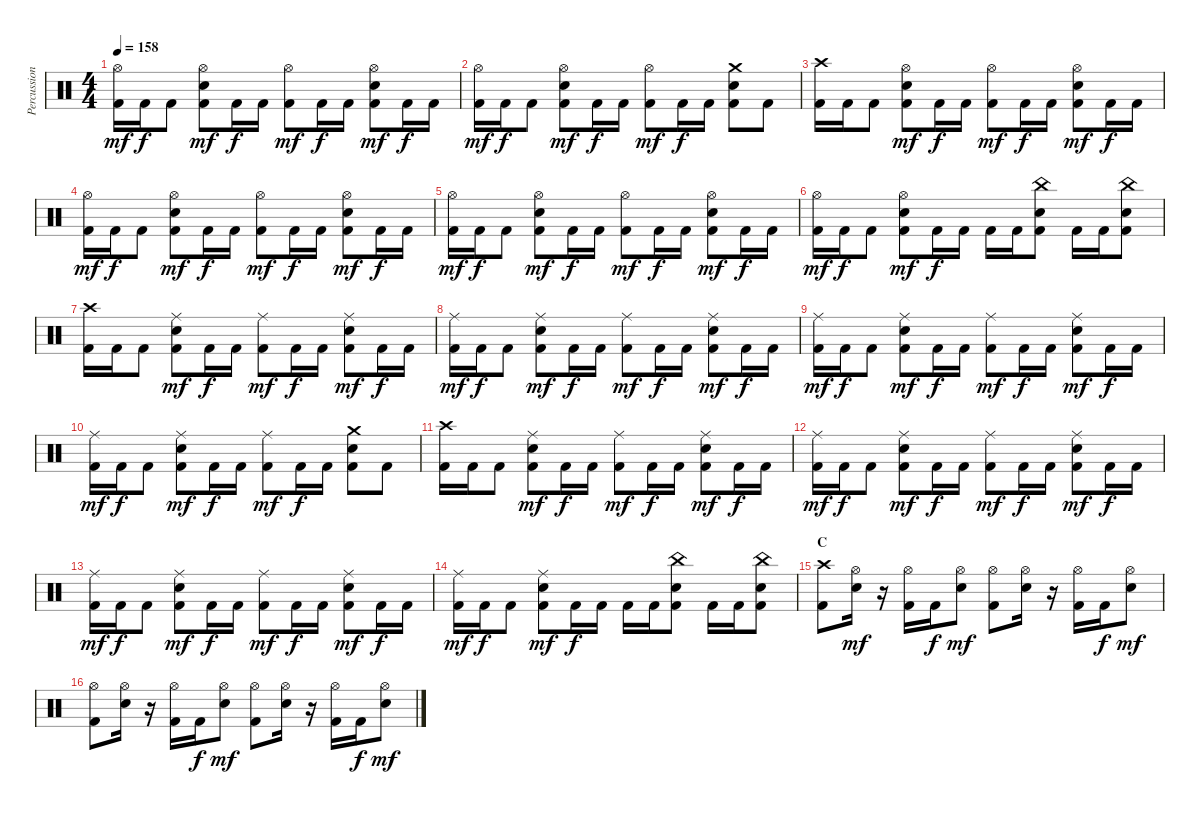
\track ("Percussion" "Percussion") {instrument percussion}
\staff {score}
\articulation defaults
\ts (4 4)
\tempo 158
\clef neutral
\ks c
("Hi-Hat (open)" "Kick (hit) 2").16{dy mf} "Kick (hit) 2".16{dy f} "Kick (hit) 2".8 ("Hi-Hat (open)" "Electric Snare (hit)" "Kick (hit) 2").8{dy mf} "Kick (hit) 2".16{dy f} "Kick (hit) 2".16 ("Hi-Hat (open)" "Kick (hit) 2").8{dy mf} "Kick (hit) 2".16{dy f} "Kick (hit) 2".16 ("Hi-Hat (open)" "Electric Snare (hit)" "Kick (hit) 2").8{dy mf} "Kick (hit) 2".16{dy f} "Kick (hit) 2".16 |
("Hi-Hat (open)" "Kick (hit) 2").16{dy mf} "Kick (hit) 2".16{dy f} "Kick (hit) 2".8 ("Hi-Hat (open)" "Electric Snare (hit)" "Kick (hit) 2").8{dy mf} "Kick (hit) 2".16{dy f} "Kick (hit) 2".16 ("Hi-Hat (open)" "Kick (hit) 2").8{dy mf} "Kick (hit) 2".16{dy f} "Kick (hit) 2".16 ("Crash medium (hit)" "Electric Snare (hit)" "Kick (hit) 2").8 "Kick (hit) 2".8 |
("Crash high (hit)" "Kick (hit) 2").16 "Kick (hit) 2".16 "Kick (hit) 2".8 ("Hi-Hat (open)" "Electric Snare (hit)" "Kick (hit) 2").8{dy mf} "Kick (hit) 2".16{dy f} "Kick (hit) 2".16 ("Hi-Hat (open)" "Kick (hit) 2").8{dy mf} "Kick (hit) 2".16{dy f} "Kick (hit) 2".16 ("Hi-Hat (open)" "Electric Snare (hit)" "Kick (hit) 2").8{dy mf} "Kick (hit) 2".16{dy f} "Kick (hit) 2".16 |
("Hi-Hat (open)" "Kick (hit) 2").16{dy mf} "Kick (hit) 2".16{dy f} "Kick (hit) 2".8 ("Hi-Hat (open)" "Electric Snare (hit)" "Kick (hit) 2").8{dy mf} "Kick (hit) 2".16{dy f} "Kick (hit) 2".16 ("Hi-Hat (open)" "Kick (hit) 2").8{dy mf} "Kick (hit) 2".16{dy f} "Kick (hit) 2".16 ("Hi-Hat (open)" "Electric Snare (hit)" "Kick (hit) 2").8{dy mf} "Kick (hit) 2".16{dy f} "Kick (hit) 2".16 |
("Hi-Hat (open)" "Kick (hit) 2").16{dy mf} "Kick (hit) 2".16{dy f} "Kick (hit) 2".8 ("Hi-Hat (open)" "Electric Snare (hit)" "Kick (hit) 2").8{dy mf} "Kick (hit) 2".16{dy f} "Kick (hit) 2".16 ("Hi-Hat (open)" "Kick (hit) 2").8{dy mf} "Kick (hit) 2".16{dy f} "Kick (hit) 2".16 ("Hi-Hat (open)" "Electric Snare (hit)" "Kick (hit) 2").8{dy mf} "Kick (hit) 2".16{dy f} "Kick (hit) 2".16 |
("Hi-Hat (open)" "Kick (hit) 2").16{dy mf} "Kick (hit) 2".16{dy f} "Kick (hit) 2".8 ("Hi-Hat (open)" "Electric Snare (hit)" "Kick (hit) 2").8{dy mf} "Kick (hit) 2".16{dy f} "Kick (hit) 2".16 "Kick (hit) 2".16 "Kick (hit) 2".16 ("China (hit)" "Electric Snare (hit)" "Kick (hit) 2").8 "Kick (hit) 2".16 "Kick (hit) 2".16 ("China (hit)" "Electric Snare (hit)" "Kick (hit) 2").8 |
("Crash high (hit)" "Kick (hit) 2").16 "Kick (hit) 2".16 "Kick (hit) 2".8 ("Ride (middle)" "Electric Snare (hit)" "Kick (hit) 2").8{dy mf} "Kick (hit) 2".16{dy f} "Kick (hit) 2".16 ("Ride (middle)" "Kick (hit) 2").8{dy mf} "Kick (hit) 2".16{dy f} "Kick (hit) 2".16 ("Ride (middle)" "Electric Snare (hit)" "Kick (hit) 2").8{dy mf} "Kick (hit) 2".16{dy f} "Kick (hit) 2".16 |
("Ride (middle)" "Kick (hit) 2").16{dy mf} "Kick (hit) 2".16{dy f} "Kick (hit) 2".8 ("Ride (middle)" "Electric Snare (hit)" "Kick (hit) 2").8{dy mf} "Kick (hit) 2".16{dy f} "Kick (hit) 2".16 ("Ride (middle)" "Kick (hit) 2").8{dy mf} "Kick (hit) 2".16{dy f} "Kick (hit) 2".16 ("Ride (middle)" "Electric Snare (hit)" "Kick (hit) 2").8{dy mf} "Kick (hit) 2".16{dy f} "Kick (hit) 2".16 |
("Ride (middle)" "Kick (hit) 2").16{dy mf} "Kick (hit) 2".16{dy f} "Kick (hit) 2".8 ("Ride (middle)" "Electric Snare (hit)" "Kick (hit) 2").8{dy mf} "Kick (hit) 2".16{dy f} "Kick (hit) 2".16 ("Ride (middle)" "Kick (hit) 2").8{dy mf} "Kick (hit) 2".16{dy f} "Kick (hit) 2".16 ("Ride (middle)" "Electric Snare (hit)" "Kick (hit) 2").8{dy mf} "Kick (hit) 2".16{dy f} "Kick (hit) 2".16 |
("Ride (middle)" "Kick (hit) 2").16{dy mf} "Kick (hit) 2".16{dy f} "Kick (hit) 2".8 ("Ride (middle)" "Electric Snare (hit)" "Kick (hit) 2").8{dy mf} "Kick (hit) 2".16{dy f} "Kick (hit) 2".16 ("Ride (middle)" "Kick (hit) 2").8{dy mf} "Kick (hit) 2".16{dy f} "Kick (hit) 2".16 ("Crash medium (hit)" "Electric Snare (hit)" "Kick (hit) 2").8 "Kick (hit) 2".8 |
("Crash high (hit)" "Kick (hit) 2").16 "Kick (hit) 2".16 "Kick (hit) 2".8 ("Ride (middle)" "Electric Snare (hit)" "Kick (hit) 2").8{dy mf} "Kick (hit) 2".16{dy f} "Kick (hit) 2".16 ("Ride (middle)" "Kick (hit) 2").8{dy mf} "Kick (hit) 2".16{dy f} "Kick (hit) 2".16 ("Ride (middle)" "Electric Snare (hit)" "Kick (hit) 2").8{dy mf} "Kick (hit) 2".16{dy f} "Kick (hit) 2".16 |
("Ride (middle)" "Kick (hit) 2").16{dy mf} "Kick (hit) 2".16{dy f} "Kick (hit) 2".8 ("Ride (middle)" "Electric Snare (hit)" "Kick (hit) 2").8{dy mf} "Kick (hit) 2".16{dy f} "Kick (hit) 2".16 ("Ride (middle)" "Kick (hit) 2").8{dy mf} "Kick (hit) 2".16{dy f} "Kick (hit) 2".16 ("Ride (middle)" "Electric Snare (hit)" "Kick (hit) 2").8{dy mf} "Kick (hit) 2".16{dy f} "Kick (hit) 2".16 |
("Ride (middle)" "Kick (hit) 2").16{dy mf} "Kick (hit) 2".16{dy f} "Kick (hit) 2".8 ("Ride (middle)" "Electric Snare (hit)" "Kick (hit) 2").8{dy mf} "Kick (hit) 2".16{dy f} "Kick (hit) 2".16 ("Ride (middle)" "Kick (hit) 2").8{dy mf} "Kick (hit) 2".16{dy f} "Kick (hit) 2".16 ("Ride (middle)" "Electric Snare (hit)" "Kick (hit) 2").8{dy mf} "Kick (hit) 2".16{dy f} "Kick (hit) 2".16 |
("Ride (middle)" "Kick (hit) 2").16{dy mf} "Kick (hit) 2".16{dy f} "Kick (hit) 2".8 ("Ride (middle)" "Electric Snare (hit)" "Kick (hit) 2").8{dy mf} "Kick (hit) 2".16{dy f} "Kick (hit) 2".16 "Kick (hit) 2".16 "Kick (hit) 2".16 ("China (hit)" "Electric Snare (hit)" "Kick (hit) 2").8 "Kick (hit) 2".16 "Kick (hit) 2".16 ("China (hit)" "Electric Snare (hit)" "Kick (hit) 2").8 |
\section ("" "C")
("Crash high (hit)" "Kick (hit) 2").8 ("Hi-Hat (open)" "Electric Snare (hit)").16{dy mf} r.16 ("Hi-Hat (open)" "Kick (hit) 2").16 "Kick (hit) 2".16{dy f} ("Hi-Hat (open)" "Electric Snare (hit)").8{dy mf} ("Hi-Hat (open)" "Kick (hit) 2").8 ("Hi-Hat (open)" "Electric Snare (hit)").16 r.16 ("Hi-Hat (open)" "Kick (hit) 2").16 "Kick (hit) 2".16{dy f} ("Hi-Hat (open)" "Electric Snare (hit)").8{dy mf} |
("Hi-Hat (open)" "Kick (hit) 2").8 ("Hi-Hat (open)" "Electric Snare (hit)").16 r.16 ("Hi-Hat (open)" "Kick (hit) 2").16 "Kick (hit) 2".16{dy f} ("Hi-Hat (open)" "Electric Snare (hit)").8{dy mf} ("Hi-Hat (open)" "Kick (hit) 2").8 ("Hi-Hat (open)" "Electric Snare (hit)").16 r.16 ("Hi-Hat (open)" "Kick (hit) 2").16 "Kick (hit) 2".16{dy f} ("Hi-Hat (open)" "Electric Snare (hit)").8{dy mf}
